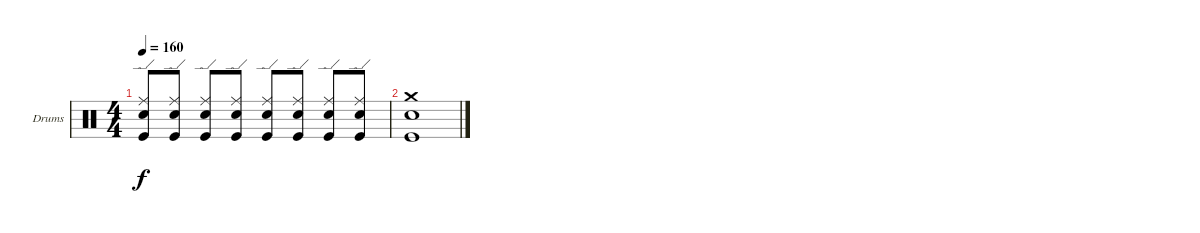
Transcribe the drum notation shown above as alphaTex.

\bracketExtendMode groupsimilarinstruments
\firstSystemTrackNameOrientation horizontal
\otherSystemsTrackNameOrientation horizontal
\track ("Fabrizio" "Drums") {instrument percussion}
\staff {score}
\articulation defaults
\ts (4 4)
\tempo 160
\clef neutral
\ks c
("Kick (hit)" "Ride (edge)" "Snare (hit) 2").8{dy f} ("Ride (edge)" "Kick (hit)" "Snare (hit) 2").8 ("Snare (hit) 2" "Ride (edge)" "Kick (hit)").8 ("Ride (edge)" "Kick (hit)" "Snare (hit) 2").8 ("Ride (edge)" "Kick (hit)" "Snare (hit) 2").8 ("Ride (edge)" "Kick (hit)" "Snare (hit) 2").8 ("Snare (hit) 2" "Ride (edge)" "Kick (hit)").8 ("Ride (edge)" "Kick (hit)" "Snare (hit) 2").8 |
("Kick (hit)" "Snare (hit) 2" "Crash medium (hit)").1
